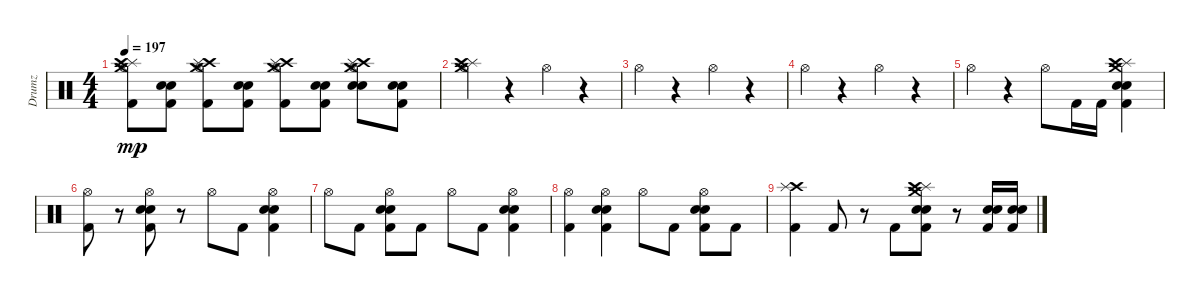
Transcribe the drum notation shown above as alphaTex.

\track ("Drumz" "Drumz") {instrument percussion}
\staff {score}
\articulation defaults
\ts (4 4)
\tempo 197
\clef neutral
\ks c
("Splash (hit)" "Crash medium (hit)" "Crash high (hit)" "Hi-Hat (open)" "Kick (hit) 2").8{dy mp} ("Snare (hit) 2" "Electric Snare (hit)" "Kick (hit) 2").8 ("Crash high (hit)" "Splash (hit)" "Crash medium (hit)" "Hi-Hat (open)" "Kick (hit) 2").8 ("Snare (hit) 2" "Electric Snare (hit)" "Kick (hit) 2").8 ("Crash high (hit)" "Splash (hit)" "Crash medium (hit)" "Kick (hit) 2" "Hi-Hat (open)").8 ("Snare (hit) 2" "Electric Snare (hit)" "Kick (hit) 2").8 ("Crash high (hit)" "Splash (hit)" "Crash medium (hit)" "Hi-Hat (open)" "Snare (hit) 2" "Electric Snare (hit)").8 ("Kick (hit) 2" "Snare (hit) 2" "Electric Snare (hit)").8 |
("Splash (hit)" "Crash medium (hit)" "Crash high (hit)" "Hi-Hat (open)").4 r.4 "Hi-Hat (open)".4 r.4 |
"Hi-Hat (open)".4 r.4 "Hi-Hat (open)".4 r.4 |
"Hi-Hat (open)".4 r.4 "Hi-Hat (open)".4 r.4 |
"Hi-Hat (open)".4 r.4 "Hi-Hat (open)".8 "Kick (hit) 2".16 "Kick (hit) 2".16 ("Splash (hit)" "Crash medium (hit)" "Crash high (hit)" "Snare (hit) 2" "Electric Snare (hit)" "Kick (hit) 2").4 |
("Kick (hit) 2" "Hi-Hat (open)").8 r.8 ("Snare (hit) 2" "Electric Snare (hit)" "Hi-Hat (open)" "Kick (hit) 2").8 r.8 "Hi-Hat (open)".8 "Kick (hit) 2".8 ("Snare (hit) 2" "Electric Snare (hit)" "Kick (hit) 2" "Hi-Hat (open)").4 |
"Hi-Hat (open)".8 "Kick (hit) 2".8 ("Snare (hit) 2" "Electric Snare (hit)" "Kick (hit) 2" "Hi-Hat (open)").8 "Kick (hit) 2".8 "Hi-Hat (open)".8 "Kick (hit) 2".8 ("Snare (hit) 2" "Electric Snare (hit)" "Kick (hit) 2" "Hi-Hat (open)").4 |
("Kick (hit) 2" "Hi-Hat (open)").4 ("Snare (hit) 2" "Electric Snare (hit)" "Kick (hit) 2" "Hi-Hat (open)").4 "Hi-Hat (open)".8 "Kick (hit) 2".8 ("Snare (hit) 2" "Electric Snare (hit)" "Kick (hit) 2" "Hi-Hat (open)").8 "Kick (hit) 2".8 |
("Crash high (hit)" "Splash (hit)" "Kick (hit) 2").4 "Kick (hit) 2".8 r.8 "Kick (hit) 2".8 ("Kick (hit) 2" "Snare (hit) 2" "Electric Snare (hit)" "Crash medium (hit)" "Splash (hit)" "Crash high (hit)").8 r.8 ("Snare (hit) 2" "Kick (hit) 2" "Electric Snare (hit)").16 ("Snare (hit) 2" "Electric Snare (hit)" "Kick (hit) 2").16
